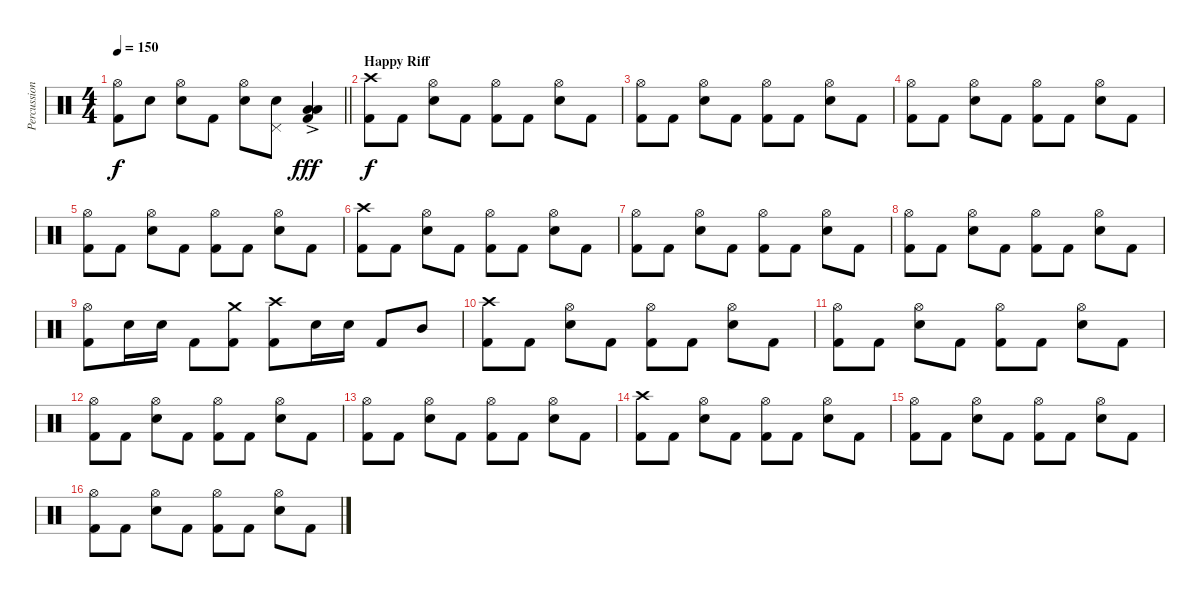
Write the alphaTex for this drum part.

\track ("Percussion" "Percussion") {instrument percussion}
\staff {score}
\articulation defaults
\ts (4 4)
\tempo 150
\clef neutral
\barLineRight lightlight
\ks c
("Hi-Hat (open)" "Kick (hit) 2").8{dy f} "Electric Snare (hit)".8 ("Hi-Hat (open)" "Electric Snare (hit)").8 "Kick (hit) 2".8 ("Hi-Hat (open)" "Electric Snare (hit)").8 ("Pedal Hi-Hat (hit)" "Electric Snare (hit)").8 ("Low Tom (hit)"{ac} "Low Floor Tom (hit)"{ac} "Kick (hit) 2"{ac}).4{dy fff} |
\section ("" "Happy Riff")
("Crash high (hit)" "Kick (hit) 2").8{dy f} "Kick (hit) 2".8 ("Hi-Hat (open)" "Electric Snare (hit)").8 "Kick (hit) 2".8 ("Hi-Hat (open)" "Kick (hit) 2").8 "Kick (hit) 2".8 ("Hi-Hat (open)" "Electric Snare (hit)").8 "Kick (hit) 2".8 |
("Hi-Hat (open)" "Kick (hit) 2").8 "Kick (hit) 2".8 ("Hi-Hat (open)" "Electric Snare (hit)").8 "Kick (hit) 2".8 ("Hi-Hat (open)" "Kick (hit) 2").8 "Kick (hit) 2".8 ("Hi-Hat (open)" "Electric Snare (hit)").8 "Kick (hit) 2".8 |
("Hi-Hat (open)" "Kick (hit) 2").8 "Kick (hit) 2".8 ("Hi-Hat (open)" "Electric Snare (hit)").8 "Kick (hit) 2".8 ("Hi-Hat (open)" "Kick (hit) 2").8 "Kick (hit) 2".8 ("Hi-Hat (open)" "Electric Snare (hit)").8 "Kick (hit) 2".8 |
("Hi-Hat (open)" "Kick (hit) 2").8 "Kick (hit) 2".8 ("Hi-Hat (open)" "Electric Snare (hit)").8 "Kick (hit) 2".8 ("Hi-Hat (open)" "Kick (hit) 2").8 "Kick (hit) 2".8 ("Hi-Hat (open)" "Electric Snare (hit)").8 "Kick (hit) 2".8 |
("Crash high (hit)" "Kick (hit) 2").8 "Kick (hit) 2".8 ("Hi-Hat (open)" "Electric Snare (hit)").8 "Kick (hit) 2".8 ("Hi-Hat (open)" "Kick (hit) 2").8 "Kick (hit) 2".8 ("Hi-Hat (open)" "Electric Snare (hit)").8 "Kick (hit) 2".8 |
("Hi-Hat (open)" "Kick (hit) 2").8 "Kick (hit) 2".8 ("Hi-Hat (open)" "Electric Snare (hit)").8 "Kick (hit) 2".8 ("Hi-Hat (open)" "Kick (hit) 2").8 "Kick (hit) 2".8 ("Hi-Hat (open)" "Electric Snare (hit)").8 "Kick (hit) 2".8 |
("Hi-Hat (open)" "Kick (hit) 2").8 "Kick (hit) 2".8 ("Hi-Hat (open)" "Electric Snare (hit)").8 "Kick (hit) 2".8 ("Hi-Hat (open)" "Kick (hit) 2").8 "Kick (hit) 2".8 ("Hi-Hat (open)" "Electric Snare (hit)").8 "Kick (hit) 2".8 |
("Hi-Hat (open)" "Kick (hit) 2").8 "Electric Snare (hit)".16 "Electric Snare (hit)".16 "Kick (hit) 2".8 ("Crash medium (hit)" "Kick (hit) 2").8 ("Crash high (hit)" "Kick (hit) 2").8 "Electric Snare (hit)".16 "Electric Snare (hit)".16 "Kick (hit) 2".8 "Mid Tom (hit)".8 |
("Crash high (hit)" "Kick (hit) 2").8 "Kick (hit) 2".8 ("Hi-Hat (open)" "Electric Snare (hit)").8 "Kick (hit) 2".8 ("Hi-Hat (open)" "Kick (hit) 2").8 "Kick (hit) 2".8 ("Hi-Hat (open)" "Electric Snare (hit)").8 "Kick (hit) 2".8 |
("Hi-Hat (open)" "Kick (hit) 2").8 "Kick (hit) 2".8 ("Hi-Hat (open)" "Electric Snare (hit)").8 "Kick (hit) 2".8 ("Hi-Hat (open)" "Kick (hit) 2").8 "Kick (hit) 2".8 ("Hi-Hat (open)" "Electric Snare (hit)").8 "Kick (hit) 2".8 |
("Hi-Hat (open)" "Kick (hit) 2").8 "Kick (hit) 2".8 ("Hi-Hat (open)" "Electric Snare (hit)").8 "Kick (hit) 2".8 ("Hi-Hat (open)" "Kick (hit) 2").8 "Kick (hit) 2".8 ("Hi-Hat (open)" "Electric Snare (hit)").8 "Kick (hit) 2".8 |
("Hi-Hat (open)" "Kick (hit) 2").8 "Kick (hit) 2".8 ("Hi-Hat (open)" "Electric Snare (hit)").8 "Kick (hit) 2".8 ("Hi-Hat (open)" "Kick (hit) 2").8 "Kick (hit) 2".8 ("Hi-Hat (open)" "Electric Snare (hit)").8 "Kick (hit) 2".8 |
("Crash high (hit)" "Kick (hit) 2").8 "Kick (hit) 2".8 ("Hi-Hat (open)" "Electric Snare (hit)").8 "Kick (hit) 2".8 ("Hi-Hat (open)" "Kick (hit) 2").8 "Kick (hit) 2".8 ("Hi-Hat (open)" "Electric Snare (hit)").8 "Kick (hit) 2".8 |
("Hi-Hat (open)" "Kick (hit) 2").8 "Kick (hit) 2".8 ("Hi-Hat (open)" "Electric Snare (hit)").8 "Kick (hit) 2".8 ("Hi-Hat (open)" "Kick (hit) 2").8 "Kick (hit) 2".8 ("Hi-Hat (open)" "Electric Snare (hit)").8 "Kick (hit) 2".8 |
("Hi-Hat (open)" "Kick (hit) 2").8 "Kick (hit) 2".8 ("Hi-Hat (open)" "Electric Snare (hit)").8 "Kick (hit) 2".8 ("Hi-Hat (open)" "Kick (hit) 2").8 "Kick (hit) 2".8 ("Hi-Hat (open)" "Electric Snare (hit)").8 "Kick (hit) 2".8
